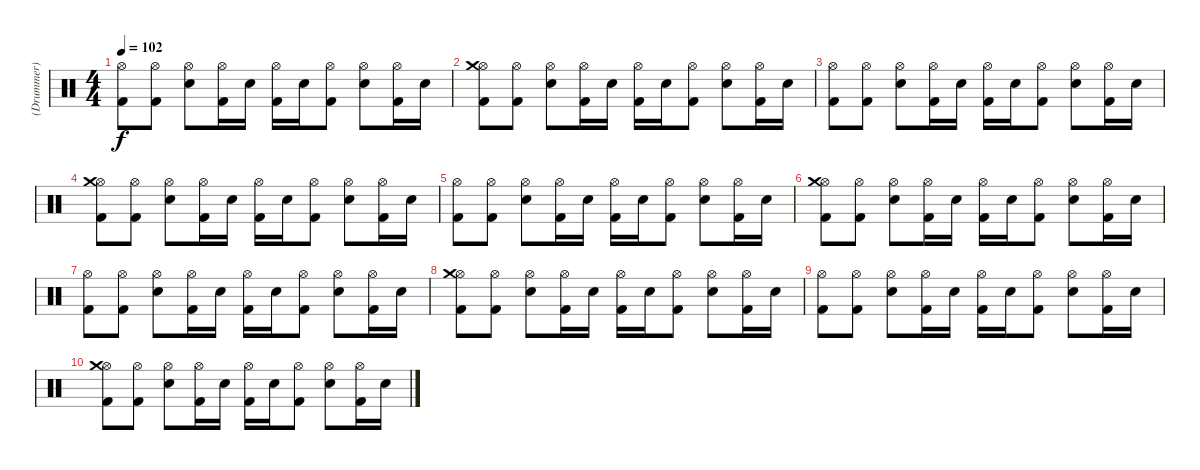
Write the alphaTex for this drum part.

\track ("(Drummer)" "(Drummer)") {solo instrument percussion}
\staff {score}
\articulation defaults
\ts (4 4)
\tempo 102
\clef neutral
\ks c
("Hi-Hat (open)" "Kick (hit) 2").8{dy f} ("Hi-Hat (open)" "Kick (hit) 2").8 ("Hi-Hat (open)" "Electric Snare (hit)").8 ("Hi-Hat (open)" "Kick (hit) 2").16 "Electric Snare (hit)".16 ("Hi-Hat (open)" "Kick (hit) 2").16 "Electric Snare (hit)".16 ("Hi-Hat (open)" "Kick (hit) 2").8 ("Hi-Hat (open)" "Electric Snare (hit)").8 ("Hi-Hat (open)" "Kick (hit) 2").16 "Electric Snare (hit)".16 |
("Hi-Hat (open)" "Crash medium (hit)" "Kick (hit) 2").8 ("Hi-Hat (open)" "Kick (hit) 2").8 ("Hi-Hat (open)" "Electric Snare (hit)").8 ("Hi-Hat (open)" "Kick (hit) 2").16 "Electric Snare (hit)".16 ("Hi-Hat (open)" "Kick (hit) 2").16 "Electric Snare (hit)".16 ("Hi-Hat (open)" "Kick (hit) 2").8 ("Hi-Hat (open)" "Electric Snare (hit)").8 ("Hi-Hat (open)" "Kick (hit) 2").16 "Electric Snare (hit)".16 |
("Hi-Hat (open)" "Kick (hit) 2").8 ("Hi-Hat (open)" "Kick (hit) 2").8 ("Hi-Hat (open)" "Electric Snare (hit)").8 ("Hi-Hat (open)" "Kick (hit) 2").16 "Electric Snare (hit)".16 ("Hi-Hat (open)" "Kick (hit) 2").16 "Electric Snare (hit)".16 ("Hi-Hat (open)" "Kick (hit) 2").8 ("Hi-Hat (open)" "Electric Snare (hit)").8 ("Hi-Hat (open)" "Kick (hit) 2").16 "Electric Snare (hit)".16 |
("Hi-Hat (open)" "Crash medium (hit)" "Kick (hit) 2").8 ("Hi-Hat (open)" "Kick (hit) 2").8 ("Hi-Hat (open)" "Electric Snare (hit)").8 ("Hi-Hat (open)" "Kick (hit) 2").16 "Electric Snare (hit)".16 ("Hi-Hat (open)" "Kick (hit) 2").16 "Electric Snare (hit)".16 ("Hi-Hat (open)" "Kick (hit) 2").8 ("Hi-Hat (open)" "Electric Snare (hit)").8 ("Hi-Hat (open)" "Kick (hit) 2").16 "Electric Snare (hit)".16 |
("Hi-Hat (open)" "Kick (hit) 2").8 ("Hi-Hat (open)" "Kick (hit) 2").8 ("Hi-Hat (open)" "Electric Snare (hit)").8 ("Hi-Hat (open)" "Kick (hit) 2").16 "Electric Snare (hit)".16 ("Hi-Hat (open)" "Kick (hit) 2").16 "Electric Snare (hit)".16 ("Hi-Hat (open)" "Kick (hit) 2").8 ("Hi-Hat (open)" "Electric Snare (hit)").8 ("Hi-Hat (open)" "Kick (hit) 2").16 "Electric Snare (hit)".16 |
("Hi-Hat (open)" "Crash medium (hit)" "Kick (hit) 2").8 ("Hi-Hat (open)" "Kick (hit) 2").8 ("Hi-Hat (open)" "Electric Snare (hit)").8 ("Hi-Hat (open)" "Kick (hit) 2").16 "Electric Snare (hit)".16 ("Hi-Hat (open)" "Kick (hit) 2").16 "Electric Snare (hit)".16 ("Hi-Hat (open)" "Kick (hit) 2").8 ("Hi-Hat (open)" "Electric Snare (hit)").8 ("Hi-Hat (open)" "Kick (hit) 2").16 "Electric Snare (hit)".16 |
("Hi-Hat (open)" "Kick (hit) 2").8 ("Hi-Hat (open)" "Kick (hit) 2").8 ("Hi-Hat (open)" "Electric Snare (hit)").8 ("Hi-Hat (open)" "Kick (hit) 2").16 "Electric Snare (hit)".16 ("Hi-Hat (open)" "Kick (hit) 2").16 "Electric Snare (hit)".16 ("Hi-Hat (open)" "Kick (hit) 2").8 ("Hi-Hat (open)" "Electric Snare (hit)").8 ("Hi-Hat (open)" "Kick (hit) 2").16 "Electric Snare (hit)".16 |
("Hi-Hat (open)" "Crash medium (hit)" "Kick (hit) 2").8 ("Hi-Hat (open)" "Kick (hit) 2").8 ("Hi-Hat (open)" "Electric Snare (hit)").8 ("Hi-Hat (open)" "Kick (hit) 2").16 "Electric Snare (hit)".16 ("Hi-Hat (open)" "Kick (hit) 2").16 "Electric Snare (hit)".16 ("Hi-Hat (open)" "Kick (hit) 2").8 ("Hi-Hat (open)" "Electric Snare (hit)").8 ("Hi-Hat (open)" "Kick (hit) 2").16 "Electric Snare (hit)".16 |
("Hi-Hat (open)" "Kick (hit) 2").8 ("Hi-Hat (open)" "Kick (hit) 2").8 ("Hi-Hat (open)" "Electric Snare (hit)").8 ("Hi-Hat (open)" "Kick (hit) 2").16 "Electric Snare (hit)".16 ("Hi-Hat (open)" "Kick (hit) 2").16 "Electric Snare (hit)".16 ("Hi-Hat (open)" "Kick (hit) 2").8 ("Hi-Hat (open)" "Electric Snare (hit)").8 ("Hi-Hat (open)" "Kick (hit) 2").16 "Electric Snare (hit)".16 |
("Hi-Hat (open)" "Crash medium (hit)" "Kick (hit) 2").8 ("Hi-Hat (open)" "Kick (hit) 2").8 ("Hi-Hat (open)" "Electric Snare (hit)").8 ("Hi-Hat (open)" "Kick (hit) 2").16 "Electric Snare (hit)".16 ("Hi-Hat (open)" "Kick (hit) 2").16 "Electric Snare (hit)".16 ("Hi-Hat (open)" "Kick (hit) 2").8 ("Hi-Hat (open)" "Electric Snare (hit)").8 ("Hi-Hat (open)" "Kick (hit) 2").16 "Electric Snare (hit)".16
